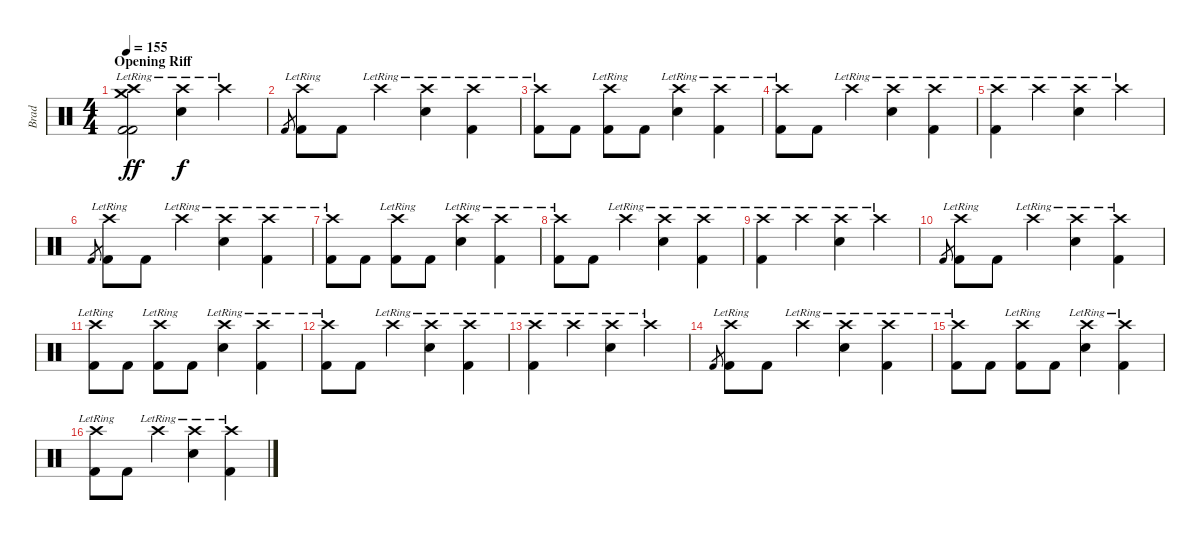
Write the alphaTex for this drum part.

\track ("Brad" "Brad") {instrument percussion}
\staff {score}
\articulation defaults
\ts (4 4)
\section ("" "Opening Riff")
\tempo 155
\clef neutral
\ks c
("Crash high (hit)"{lr} "Crash medium (hit)"{lr} "Kick (hit) 2" "Kick (hit) 2").2{dy ff} ("Crash high (hit)"{lr} "Electric Snare (hit)").4{dy f} "Crash high (hit)"{lr}.4 |
"Kick (hit) 2".8{gr} ("Crash high (hit)"{lr} "Kick (hit) 2").8 "Kick (hit) 2".8 "Crash high (hit)"{lr}.4 ("Crash high (hit)"{lr} "Electric Snare (hit)").4 ("Crash high (hit)"{lr} "Kick (hit) 2").4 |
("Crash high (hit)"{lr} "Kick (hit) 2").8 "Kick (hit) 2".8 ("Crash high (hit)"{lr} "Kick (hit) 2").8 "Kick (hit) 2".8 ("Crash high (hit)"{lr} "Electric Snare (hit)").4 ("Crash high (hit)"{lr} "Kick (hit) 2").4 |
("Crash high (hit)"{lr} "Kick (hit) 2").8 "Kick (hit) 2".8 "Crash high (hit)"{lr}.4 ("Crash high (hit)"{lr} "Electric Snare (hit)").4 ("Crash high (hit)"{lr} "Kick (hit) 2").4 |
("Crash high (hit)"{lr} "Kick (hit) 2").4 "Crash high (hit)"{lr}.4 ("Crash high (hit)"{lr} "Electric Snare (hit)").4 "Crash high (hit)"{lr}.4 |
"Kick (hit) 2".8{gr} ("Crash high (hit)"{lr} "Kick (hit) 2").8 "Kick (hit) 2".8 "Crash high (hit)"{lr}.4 ("Crash high (hit)"{lr} "Electric Snare (hit)").4 ("Crash high (hit)"{lr} "Kick (hit) 2").4 |
("Crash high (hit)"{lr} "Kick (hit) 2").8 "Kick (hit) 2".8 ("Crash high (hit)"{lr} "Kick (hit) 2").8 "Kick (hit) 2".8 ("Crash high (hit)"{lr} "Electric Snare (hit)").4 ("Crash high (hit)"{lr} "Kick (hit) 2").4 |
("Crash high (hit)"{lr} "Kick (hit) 2").8 "Kick (hit) 2".8 "Crash high (hit)"{lr}.4 ("Crash high (hit)"{lr} "Electric Snare (hit)").4 ("Crash high (hit)"{lr} "Kick (hit) 2").4 |
("Crash high (hit)"{lr} "Kick (hit) 2").4 "Crash high (hit)"{lr}.4 ("Crash high (hit)"{lr} "Electric Snare (hit)").4 "Crash high (hit)"{lr}.4 |
"Kick (hit) 2".8{gr} ("Crash high (hit)"{lr} "Kick (hit) 2").8 "Kick (hit) 2".8 "Crash high (hit)"{lr}.4 ("Crash high (hit)"{lr} "Electric Snare (hit)").4 ("Crash high (hit)"{lr} "Kick (hit) 2").4 |
("Crash high (hit)"{lr} "Kick (hit) 2").8 "Kick (hit) 2".8 ("Crash high (hit)"{lr} "Kick (hit) 2").8 "Kick (hit) 2".8 ("Crash high (hit)"{lr} "Electric Snare (hit)").4 ("Crash high (hit)"{lr} "Kick (hit) 2").4 |
("Crash high (hit)"{lr} "Kick (hit) 2").8 "Kick (hit) 2".8 "Crash high (hit)"{lr}.4 ("Crash high (hit)"{lr} "Electric Snare (hit)").4 ("Crash high (hit)"{lr} "Kick (hit) 2").4 |
("Crash high (hit)"{lr} "Kick (hit) 2").4 "Crash high (hit)"{lr}.4 ("Crash high (hit)"{lr} "Electric Snare (hit)").4 "Crash high (hit)"{lr}.4 |
"Kick (hit) 2".8{gr} ("Crash high (hit)"{lr} "Kick (hit) 2").8 "Kick (hit) 2".8 "Crash high (hit)"{lr}.4 ("Crash high (hit)"{lr} "Electric Snare (hit)").4 ("Crash high (hit)"{lr} "Kick (hit) 2").4 |
("Crash high (hit)"{lr} "Kick (hit) 2").8 "Kick (hit) 2".8 ("Crash high (hit)"{lr} "Kick (hit) 2").8 "Kick (hit) 2".8 ("Crash high (hit)"{lr} "Electric Snare (hit)").4 ("Crash high (hit)"{lr} "Kick (hit) 2").4 |
("Crash high (hit)"{lr} "Kick (hit) 2").8 "Kick (hit) 2".8 "Crash high (hit)"{lr}.4 ("Crash high (hit)"{lr} "Electric Snare (hit)").4 ("Crash high (hit)"{lr} "Kick (hit) 2").4
